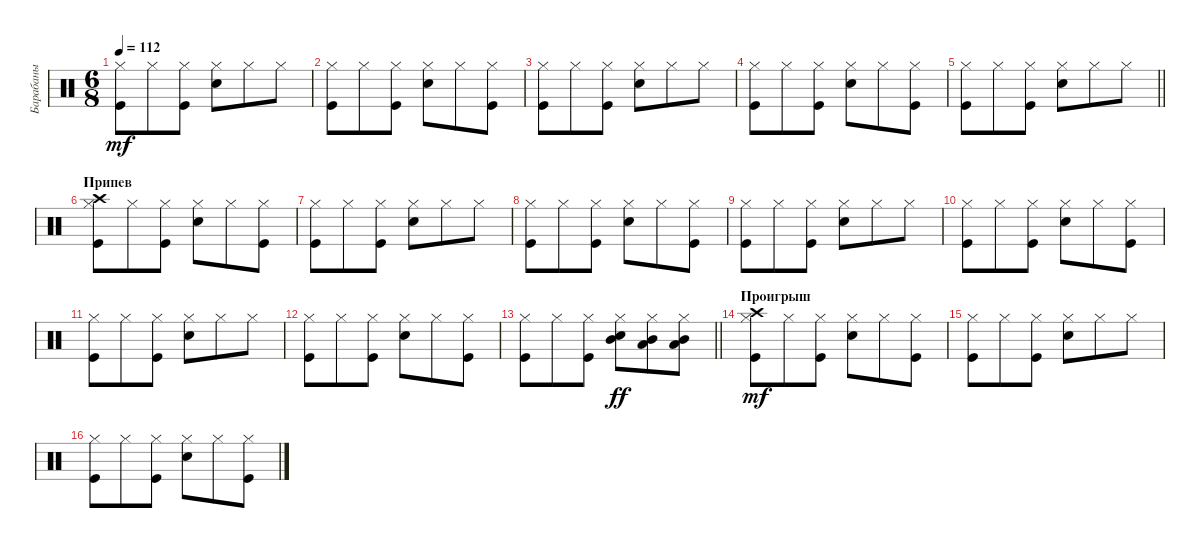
\track ("Барабаны" "Барабаны") {instrument percussion}
\staff {score}
\articulation defaults
\ts (6 8)
\tempo 112
\clef neutral
\ks c
("Kick (hit)" "Hi-Hat (closed)").8{dy mf} "Hi-Hat (closed)".8 ("Kick (hit)" "Hi-Hat (closed)").8 ("Snare (hit) 2" "Hi-Hat (closed)").8 "Hi-Hat (closed)".8 "Hi-Hat (closed)".8 |
("Kick (hit)" "Hi-Hat (closed)").8 "Hi-Hat (closed)".8 ("Kick (hit)" "Hi-Hat (closed)").8 ("Snare (hit) 2" "Hi-Hat (closed)").8 "Hi-Hat (closed)".8 ("Kick (hit)" "Hi-Hat (closed)").8 |
("Kick (hit)" "Hi-Hat (closed)").8 "Hi-Hat (closed)".8 ("Kick (hit)" "Hi-Hat (closed)").8 ("Snare (hit) 2" "Hi-Hat (closed)").8 "Hi-Hat (closed)".8 "Hi-Hat (closed)".8 |
("Kick (hit)" "Hi-Hat (closed)").8 "Hi-Hat (closed)".8 ("Kick (hit)" "Hi-Hat (closed)").8 ("Snare (hit) 2" "Hi-Hat (closed)").8 "Hi-Hat (closed)".8 ("Kick (hit)" "Hi-Hat (closed)").8 |
\barLineRight lightlight
("Kick (hit)" "Hi-Hat (closed)").8 "Hi-Hat (closed)".8 ("Kick (hit)" "Hi-Hat (closed)").8 ("Snare (hit) 2" "Hi-Hat (closed)").8 "Hi-Hat (closed)".8 "Hi-Hat (closed)".8 |
\section ("" "Припев")
("Kick (hit)" "Hi-Hat (closed)" "Crash high (hit)").8 "Hi-Hat (closed)".8 ("Kick (hit)" "Hi-Hat (closed)").8 ("Snare (hit) 2" "Hi-Hat (closed)").8 "Hi-Hat (closed)".8 ("Kick (hit)" "Hi-Hat (closed)").8 |
("Kick (hit)" "Hi-Hat (closed)").8 "Hi-Hat (closed)".8 ("Kick (hit)" "Hi-Hat (closed)").8 ("Snare (hit) 2" "Hi-Hat (closed)").8 "Hi-Hat (closed)".8 "Hi-Hat (closed)".8 |
("Kick (hit)" "Hi-Hat (closed)").8 "Hi-Hat (closed)".8 ("Kick (hit)" "Hi-Hat (closed)").8 ("Snare (hit) 2" "Hi-Hat (closed)").8 "Hi-Hat (closed)".8 ("Kick (hit)" "Hi-Hat (closed)").8 |
("Kick (hit)" "Hi-Hat (closed)").8 "Hi-Hat (closed)".8 ("Kick (hit)" "Hi-Hat (closed)").8 ("Snare (hit) 2" "Hi-Hat (closed)").8 "Hi-Hat (closed)".8 "Hi-Hat (closed)".8 |
("Kick (hit)" "Hi-Hat (closed)").8 "Hi-Hat (closed)".8 ("Kick (hit)" "Hi-Hat (closed)").8 ("Snare (hit) 2" "Hi-Hat (closed)").8 "Hi-Hat (closed)".8 ("Kick (hit)" "Hi-Hat (closed)").8 |
("Kick (hit)" "Hi-Hat (closed)").8 "Hi-Hat (closed)".8 ("Kick (hit)" "Hi-Hat (closed)").8 ("Snare (hit) 2" "Hi-Hat (closed)").8 "Hi-Hat (closed)".8 "Hi-Hat (closed)".8 |
("Kick (hit)" "Hi-Hat (closed)").8 "Hi-Hat (closed)".8 ("Kick (hit)" "Hi-Hat (closed)").8 ("Snare (hit) 2" "Hi-Hat (closed)").8 "Hi-Hat (closed)".8 ("Kick (hit)" "Hi-Hat (closed)").8 |
\barLineRight lightlight
("Kick (hit)" "Hi-Hat (closed)").8 "Hi-Hat (closed)".8 ("Kick (hit)" "Hi-Hat (closed)").8 ("Snare (hit) 2" "Hi-Hat (closed)" "Mid Tom (hit)").8{dy ff} ("Hi-Hat (closed)" "Low Tom (hit)" "Mid Tom (hit)").8 ("Hi-Hat (closed)" "Low Tom (hit)" "Mid Tom (hit)").8 |
\section ("" "Проигрыш")
("Kick (hit)" "Hi-Hat (closed)" "Crash high (hit)").8{dy mf} "Hi-Hat (closed)".8 ("Kick (hit)" "Hi-Hat (closed)").8 ("Snare (hit) 2" "Hi-Hat (closed)").8 "Hi-Hat (closed)".8 ("Kick (hit)" "Hi-Hat (closed)").8 |
("Kick (hit)" "Hi-Hat (closed)").8 "Hi-Hat (closed)".8 ("Kick (hit)" "Hi-Hat (closed)").8 ("Snare (hit) 2" "Hi-Hat (closed)").8 "Hi-Hat (closed)".8 "Hi-Hat (closed)".8 |
("Kick (hit)" "Hi-Hat (closed)").8 "Hi-Hat (closed)".8 ("Kick (hit)" "Hi-Hat (closed)").8 ("Snare (hit) 2" "Hi-Hat (closed)").8 "Hi-Hat (closed)".8 ("Kick (hit)" "Hi-Hat (closed)").8
